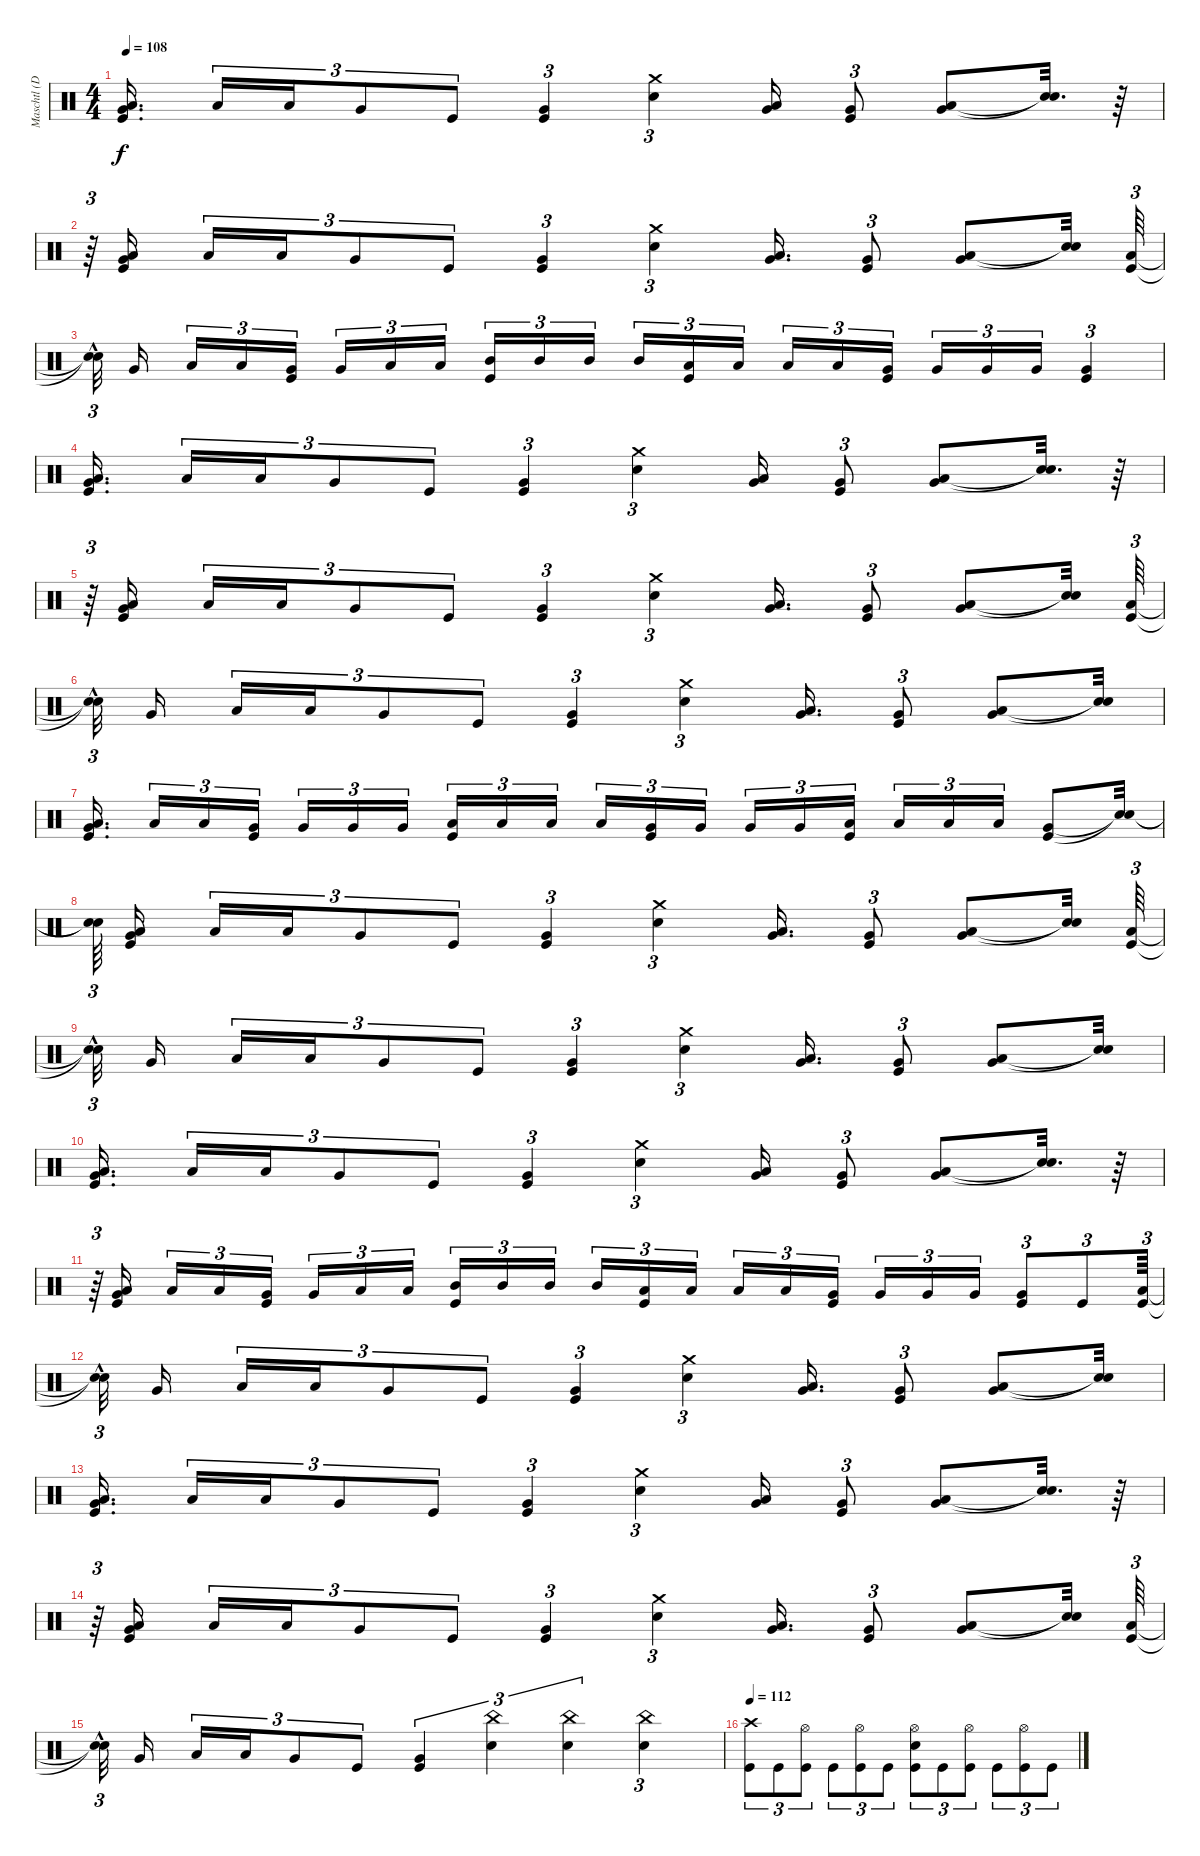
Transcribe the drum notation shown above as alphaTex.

\track ("Maschtl (Drums)" "Maschtl (D") {instrument percussion}
\staff {score}
\articulation defaults
\ts (4 4)
\tempo 108
\clef neutral
\ks c
("Kick (hit)" "Low Tom (hit)" "Very Low Tom (hit)").16{d dy f} "Low Tom (hit)".16{tu (3 2)} "Low Tom (hit)".16{tu (3 2)} "Very Low Tom (hit)".8{tu (3 2)} "Kick (hit)".8{tu (3 2)} ("Very Low Tom (hit)" "Kick (hit)").4{tu (3 2)} ("Crash medium (hit)" "Electric Snare (hit)").4{tu (3 2)} ("Very Low Tom (hit)" "Low Tom (hit)").16 ("Very Low Tom (hit)" "Kick (hit)").8{tu (3 2)} ("Very Low Tom (hit)" "Low Tom (hit)").8 ("Snare (hit)"{t} "Snare (hit)"{t}).32{d} r.64 |
r.64{tu (3 2)} ("Kick (hit)" "Low Tom (hit)" "Very Low Tom (hit)").16 "Low Tom (hit)".16{tu (3 2)} "Low Tom (hit)".16{tu (3 2)} "Very Low Tom (hit)".8{tu (3 2)} "Kick (hit)".8{tu (3 2)} ("Very Low Tom (hit)" "Kick (hit)").4{tu (3 2)} ("Crash medium (hit)" "Electric Snare (hit)").4{tu (3 2)} ("Very Low Tom (hit)" "Low Tom (hit)").16{d} ("Very Low Tom (hit)" "Kick (hit)").8{tu (3 2)} ("Very Low Tom (hit)" "Low Tom (hit)").8 ("Snare (hit)"{t} "Snare (hit)"{t}).32 ("Kick (hit)" "Low Tom (hit)").64{tu (3 2)} |
("Snare (hit)"{t} "Snare (hit)"{hac t}).32{tu (3 2)} "Very Low Tom (hit)".16 "Low Tom (hit)".16{tu (3 2)} "Low Tom (hit)".16{tu (3 2)} ("Very Low Tom (hit)" "Kick (hit)").16{tu (3 2)} "Very Low Tom (hit)".16{tu (3 2)} "Low Floor Tom (hit)".16{tu (3 2)} "Low Floor Tom (hit)".16{tu (3 2)} ("Mid Tom (hit)" "Kick (hit)").16{tu (3 2)} "Mid Tom (hit)".16{tu (3 2)} "Mid Tom (hit)".16{tu (3 2)} "Mid Tom (hit)".16{tu (3 2)} ("Low Tom (hit)" "Kick (hit)").16{tu (3 2)} "Low Tom (hit)".16{tu (3 2)} "Low Tom (hit)".16{tu (3 2)} "Low Tom (hit)".16{tu (3 2)} ("Very Low Tom (hit)" "Kick (hit)").16{tu (3 2)} "Very Low Tom (hit)".16{tu (3 2)} "Very Low Tom (hit)".16{tu (3 2)} "Very Low Tom (hit)".16{tu (3 2)} ("Very Low Tom (hit)" "Kick (hit)").4{tu (3 2)} |
("Kick (hit)" "Low Tom (hit)" "Very Low Tom (hit)").16{d} "Low Tom (hit)".16{tu (3 2)} "Low Tom (hit)".16{tu (3 2)} "Very Low Tom (hit)".8{tu (3 2)} "Kick (hit)".8{tu (3 2)} ("Very Low Tom (hit)" "Kick (hit)").4{tu (3 2)} ("Crash medium (hit)" "Electric Snare (hit)").4{tu (3 2)} ("Very Low Tom (hit)" "Low Tom (hit)").16 ("Very Low Tom (hit)" "Kick (hit)").8{tu (3 2)} ("Very Low Tom (hit)" "Low Tom (hit)").8 ("Snare (hit)"{t} "Snare (hit)"{t}).32{d} r.64 |
r.64{tu (3 2)} ("Kick (hit)" "Low Tom (hit)" "Very Low Tom (hit)").16 "Low Tom (hit)".16{tu (3 2)} "Low Tom (hit)".16{tu (3 2)} "Very Low Tom (hit)".8{tu (3 2)} "Kick (hit)".8{tu (3 2)} ("Very Low Tom (hit)" "Kick (hit)").4{tu (3 2)} ("Crash medium (hit)" "Electric Snare (hit)").4{tu (3 2)} ("Very Low Tom (hit)" "Low Tom (hit)").16{d} ("Very Low Tom (hit)" "Kick (hit)").8{tu (3 2)} ("Very Low Tom (hit)" "Low Tom (hit)").8 ("Snare (hit)"{t} "Snare (hit)"{t}).32 ("Kick (hit)" "Low Tom (hit)").64{tu (3 2)} |
("Snare (hit)"{t} "Snare (hit)"{hac t}).32{tu (3 2)} "Very Low Tom (hit)".16 "Low Tom (hit)".16{tu (3 2)} "Low Tom (hit)".16{tu (3 2)} "Very Low Tom (hit)".8{tu (3 2)} "Kick (hit)".8{tu (3 2)} ("Very Low Tom (hit)" "Kick (hit)").4{tu (3 2)} ("Crash medium (hit)" "Electric Snare (hit)").4{tu (3 2)} ("Very Low Tom (hit)" "Low Tom (hit)").16{d} ("Very Low Tom (hit)" "Kick (hit)").8{tu (3 2)} ("Very Low Tom (hit)" "Low Tom (hit)").8 ("Snare (hit)"{t} "Snare (hit)"{t}).32 |
("Kick (hit)" "Low Tom (hit)" "Very Low Tom (hit)").16{d} "Low Floor Tom (hit)".16{tu (3 2)} "Low Floor Tom (hit)".16{tu (3 2)} ("Very Low Tom (hit)" "Kick (hit)").16{tu (3 2)} "Very Low Tom (hit)".16{tu (3 2)} "Very Low Tom (hit)".16{tu (3 2)} "Very Low Tom (hit)".16{tu (3 2)} ("Low Tom (hit)" "Kick (hit)").16{tu (3 2)} "Low Tom (hit)".16{tu (3 2)} "Low Tom (hit)".16{tu (3 2)} "Low Tom (hit)".16{tu (3 2)} ("Very Low Tom (hit)" "Kick (hit)").16{tu (3 2)} "Very Low Tom (hit)".16{tu (3 2)} "Very Low Tom (hit)".16{tu (3 2)} "Very Low Tom (hit)".16{tu (3 2)} ("Low Floor Tom (hit)" "Kick (hit)").16{tu (3 2)} "Low Floor Tom (hit)".16{tu (3 2)} "Low Floor Tom (hit)".16{tu (3 2)} "Low Floor Tom (hit)".16{tu (3 2)} ("Very Low Tom (hit)" "Kick (hit)").8 ("Snare (hit)"{t} "Snare (hit)"{t}).32 |
("Snare (hit)"{t} "Snare (hit)"{t}).64{tu (3 2)} ("Kick (hit)" "Low Tom (hit)" "Very Low Tom (hit)").16 "Low Tom (hit)".16{tu (3 2)} "Low Tom (hit)".16{tu (3 2)} "Very Low Tom (hit)".8{tu (3 2)} "Kick (hit)".8{tu (3 2)} ("Very Low Tom (hit)" "Kick (hit)").4{tu (3 2)} ("Crash medium (hit)" "Electric Snare (hit)").4{tu (3 2)} ("Very Low Tom (hit)" "Low Tom (hit)").16{d} ("Very Low Tom (hit)" "Kick (hit)").8{tu (3 2)} ("Very Low Tom (hit)" "Low Tom (hit)").8 ("Snare (hit)"{t} "Snare (hit)"{t}).32 ("Kick (hit)" "Low Tom (hit)").64{tu (3 2)} |
("Snare (hit)"{t} "Snare (hit)"{hac t}).32{tu (3 2)} "Very Low Tom (hit)".16 "Low Tom (hit)".16{tu (3 2)} "Low Tom (hit)".16{tu (3 2)} "Very Low Tom (hit)".8{tu (3 2)} "Kick (hit)".8{tu (3 2)} ("Very Low Tom (hit)" "Kick (hit)").4{tu (3 2)} ("Crash medium (hit)" "Electric Snare (hit)").4{tu (3 2)} ("Very Low Tom (hit)" "Low Tom (hit)").16{d} ("Very Low Tom (hit)" "Kick (hit)").8{tu (3 2)} ("Very Low Tom (hit)" "Low Tom (hit)").8 ("Snare (hit)"{t} "Snare (hit)"{t}).32 |
("Kick (hit)" "Low Tom (hit)" "Very Low Tom (hit)").16{d} "Low Tom (hit)".16{tu (3 2)} "Low Tom (hit)".16{tu (3 2)} "Very Low Tom (hit)".8{tu (3 2)} "Kick (hit)".8{tu (3 2)} ("Very Low Tom (hit)" "Kick (hit)").4{tu (3 2)} ("Crash medium (hit)" "Electric Snare (hit)").4{tu (3 2)} ("Very Low Tom (hit)" "Low Tom (hit)").16 ("Very Low Tom (hit)" "Kick (hit)").8{tu (3 2)} ("Very Low Tom (hit)" "Low Tom (hit)").8 ("Snare (hit)"{t} "Snare (hit)"{t}).32{d} r.64 |
r.64{tu (3 2)} ("Kick (hit)" "Low Tom (hit)" "Very Low Tom (hit)").16 "Low Tom (hit)".16{tu (3 2)} "Low Tom (hit)".16{tu (3 2)} ("Very Low Tom (hit)" "Kick (hit)").16{tu (3 2)} "Very Low Tom (hit)".16{tu (3 2)} "Low Floor Tom (hit)".16{tu (3 2)} "Low Floor Tom (hit)".16{tu (3 2)} ("Mid Tom (hit)" "Kick (hit)").16{tu (3 2)} "Mid Tom (hit)".16{tu (3 2)} "Mid Tom (hit)".16{tu (3 2)} "Mid Tom (hit)".16{tu (3 2)} ("Low Tom (hit)" "Kick (hit)").16{tu (3 2)} "Low Tom (hit)".16{tu (3 2)} "Low Tom (hit)".16{tu (3 2)} "Low Tom (hit)".16{tu (3 2)} ("Very Low Tom (hit)" "Kick (hit)").16{tu (3 2)} "Very Low Tom (hit)".16{tu (3 2)} "Very Low Tom (hit)".16{tu (3 2)} "Very Low Tom (hit)".16{tu (3 2)} ("Very Low Tom (hit)" "Kick (hit)").8{tu (3 2)} "Kick (hit)".8{tu (3 2)} ("Kick (hit)" "Low Tom (hit)").64{tu (3 2)} |
("Snare (hit)"{t} "Snare (hit)"{hac t}).32{tu (3 2)} "Very Low Tom (hit)".16 "Low Tom (hit)".16{tu (3 2)} "Low Tom (hit)".16{tu (3 2)} "Very Low Tom (hit)".8{tu (3 2)} "Kick (hit)".8{tu (3 2)} ("Very Low Tom (hit)" "Kick (hit)").4{tu (3 2)} ("Crash medium (hit)" "Electric Snare (hit)").4{tu (3 2)} ("Very Low Tom (hit)" "Low Tom (hit)").16{d} ("Very Low Tom (hit)" "Kick (hit)").8{tu (3 2)} ("Very Low Tom (hit)" "Low Tom (hit)").8 ("Snare (hit)"{t} "Snare (hit)"{t}).32 |
("Kick (hit)" "Low Tom (hit)" "Very Low Tom (hit)").16{d} "Low Tom (hit)".16{tu (3 2)} "Low Tom (hit)".16{tu (3 2)} "Very Low Tom (hit)".8{tu (3 2)} "Kick (hit)".8{tu (3 2)} ("Very Low Tom (hit)" "Kick (hit)").4{tu (3 2)} ("Crash medium (hit)" "Electric Snare (hit)").4{tu (3 2)} ("Very Low Tom (hit)" "Low Tom (hit)").16 ("Very Low Tom (hit)" "Kick (hit)").8{tu (3 2)} ("Very Low Tom (hit)" "Low Tom (hit)").8 ("Snare (hit)"{t} "Snare (hit)"{t}).32{d} r.64 |
r.64{tu (3 2)} ("Kick (hit)" "Low Tom (hit)" "Very Low Tom (hit)").16 "Low Tom (hit)".16{tu (3 2)} "Low Tom (hit)".16{tu (3 2)} "Very Low Tom (hit)".8{tu (3 2)} "Kick (hit)".8{tu (3 2)} ("Very Low Tom (hit)" "Kick (hit)").4{tu (3 2)} ("Crash medium (hit)" "Electric Snare (hit)").4{tu (3 2)} ("Very Low Tom (hit)" "Low Tom (hit)").16{d} ("Very Low Tom (hit)" "Kick (hit)").8{tu (3 2)} ("Very Low Tom (hit)" "Low Tom (hit)").8 ("Snare (hit)"{t} "Snare (hit)"{t}).32 ("Kick (hit)" "Low Tom (hit)").64{tu (3 2)} |
("Snare (hit)"{t} "Snare (hit)"{hac t}).32{tu (3 2)} "Very Low Tom (hit)".16 "Low Tom (hit)".16{tu (3 2)} "Low Tom (hit)".16{tu (3 2)} "Very Low Tom (hit)".8{tu (3 2)} "Kick (hit)".8{tu (3 2)} ("Very Low Tom (hit)" "Kick (hit)").4{tu (3 2)} ("China (hit)" "Electric Snare (hit)").4{tu (3 2)} ("China (hit)" "Electric Snare (hit)").4{tu (3 2)} ("China (hit)" "Electric Snare (hit)").4{tu (3 2)} |
\tempo 112
("Crash high (hit)" "Kick (hit)").8{tu (3 2)} "Kick (hit)".8{tu (3 2)} ("Hi-Hat (open)" "Kick (hit)").8{tu (3 2)} "Kick (hit)".8{tu (3 2)} ("Hi-Hat (open)" "Kick (hit)").8{tu (3 2)} "Kick (hit)".8{tu (3 2)} ("Hi-Hat (open)" "Electric Snare (hit)" "Kick (hit)").8{tu (3 2)} "Kick (hit)".8{tu (3 2)} ("Hi-Hat (open)" "Kick (hit)").8{tu (3 2)} "Kick (hit)".8{tu (3 2)} ("Hi-Hat (open)" "Kick (hit)").8{tu (3 2)} "Kick (hit)".8{tu (3 2)}
